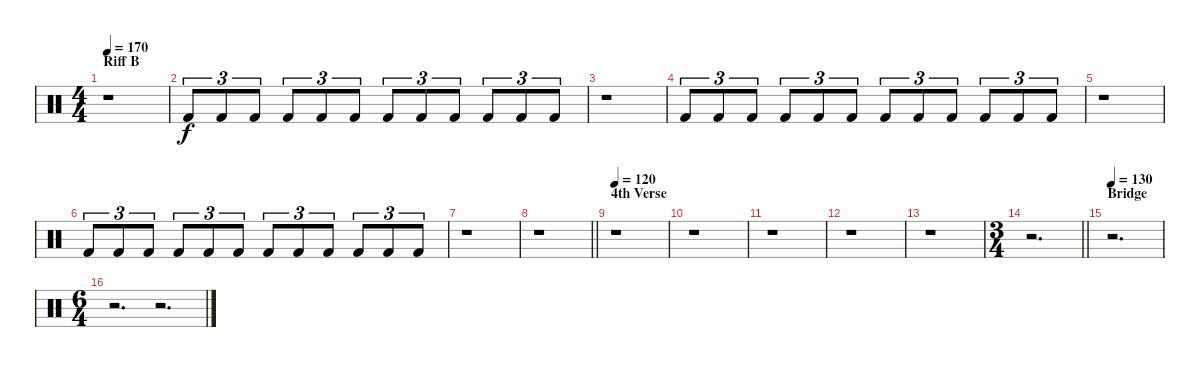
\track "" {instrument percussion}
\staff {score}
\articulation defaults
\ts (4 4)
\section ("" "Riff B")
\tempo 170
\clef neutral
\ks c
r.1{dy f} |
"Kick (hit) 2".8{tu (3 2)} "Kick (hit) 2".8{tu (3 2)} "Kick (hit) 2".8{tu (3 2)} "Kick (hit) 2".8{tu (3 2)} "Kick (hit) 2".8{tu (3 2)} "Kick (hit) 2".8{tu (3 2)} "Kick (hit) 2".8{tu (3 2)} "Kick (hit) 2".8{tu (3 2)} "Kick (hit) 2".8{tu (3 2)} "Kick (hit) 2".8{tu (3 2)} "Kick (hit) 2".8{tu (3 2)} "Kick (hit) 2".8{tu (3 2)} |
r.1 |
"Kick (hit) 2".8{tu (3 2)} "Kick (hit) 2".8{tu (3 2)} "Kick (hit) 2".8{tu (3 2)} "Kick (hit) 2".8{tu (3 2)} "Kick (hit) 2".8{tu (3 2)} "Kick (hit) 2".8{tu (3 2)} "Kick (hit) 2".8{tu (3 2)} "Kick (hit) 2".8{tu (3 2)} "Kick (hit) 2".8{tu (3 2)} "Kick (hit) 2".8{tu (3 2)} "Kick (hit) 2".8{tu (3 2)} "Kick (hit) 2".8{tu (3 2)} |
r.1 |
"Kick (hit) 2".8{tu (3 2)} "Kick (hit) 2".8{tu (3 2)} "Kick (hit) 2".8{tu (3 2)} "Kick (hit) 2".8{tu (3 2)} "Kick (hit) 2".8{tu (3 2)} "Kick (hit) 2".8{tu (3 2)} "Kick (hit) 2".8{tu (3 2)} "Kick (hit) 2".8{tu (3 2)} "Kick (hit) 2".8{tu (3 2)} "Kick (hit) 2".8{tu (3 2)} "Kick (hit) 2".8{tu (3 2)} "Kick (hit) 2".8{tu (3 2)} |
r.1 |
\barLineRight lightlight
r.1 |
\section ("" "4th Verse")
\tempo 120
r.1 |
r.1 |
r.1 |
r.1 |
r.1 |
\ts (3 4)
\barLineRight lightlight
r.2{d} |
\section ("" "Bridge")
\tempo 130
r.2{d} |
\ts (6 4)
r.2{d} r.2{d}
